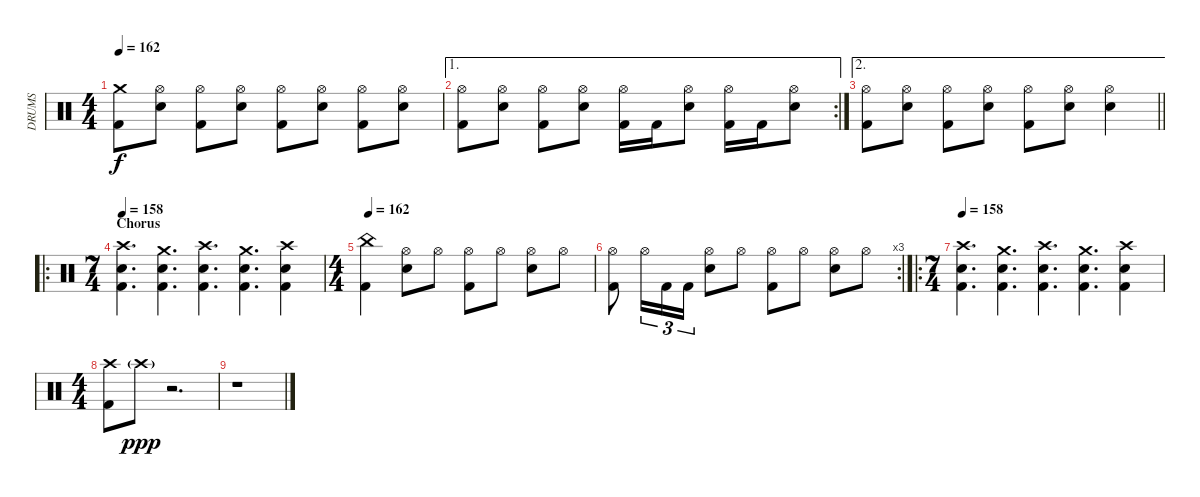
\track ("DRUMS" "DRUMS") {instrument percussion}
\staff {score}
\articulation defaults
\ts (4 4)
\tempo 162
\clef neutral
\ks c
("Crash medium (hit)" "Kick (hit) 2").8{dy f} ("Hi-Hat (open)" "Snare (hit) 2").8 ("Hi-Hat (open)" "Kick (hit) 2").8 ("Hi-Hat (open)" "Snare (hit) 2").8 ("Hi-Hat (open)" "Kick (hit) 2").8 ("Hi-Hat (open)" "Snare (hit) 2").8 ("Hi-Hat (open)" "Kick (hit) 2").8 ("Hi-Hat (open)" "Snare (hit) 2").8 |
\ae 1
\rc 2
("Hi-Hat (open)" "Kick (hit) 2").8 ("Hi-Hat (open)" "Snare (hit) 2").8 ("Hi-Hat (open)" "Kick (hit) 2").8 ("Hi-Hat (open)" "Snare (hit) 2").8 ("Hi-Hat (open)" "Kick (hit) 2").16 "Kick (hit) 2".16 ("Hi-Hat (open)" "Snare (hit) 2").8 ("Hi-Hat (open)" "Kick (hit) 2").16 "Kick (hit) 2".16 ("Hi-Hat (open)" "Snare (hit) 2").8 |
\ae 2
\barLineRight lightlight
("Hi-Hat (open)" "Kick (hit) 2").8 ("Hi-Hat (open)" "Snare (hit) 2").8 ("Hi-Hat (open)" "Kick (hit) 2").8 ("Hi-Hat (open)" "Snare (hit) 2").8 ("Hi-Hat (open)" "Kick (hit) 2").8 ("Hi-Hat (open)" "Snare (hit) 2").8 ("Hi-Hat (open)" "Snare (hit) 2").4 |
\ro
\ts (7 4)
\section ("" "Chorus")
\tempo 158
("Crash high (hit)" "Snare (hit) 2" "Kick (hit) 2").4{d} ("Crash medium (hit)" "Snare (hit) 2" "Kick (hit) 2").4{d} ("Crash high (hit)" "Snare (hit) 2" "Kick (hit) 2").4{d} ("Crash medium (hit)" "Snare (hit) 2" "Kick (hit) 2").4{d} ("Crash high (hit)" "Snare (hit) 2" "Kick (hit) 2").4 |
\ts (4 4)
\tempo 162
("China (hit)" "Kick (hit) 2").4 ("Hi-Hat (open)" "Snare (hit) 2").8 "Hi-Hat (open)".8 ("Hi-Hat (open)" "Kick (hit) 2").8 "Hi-Hat (open)".8 ("Hi-Hat (open)" "Snare (hit) 2").8 "Hi-Hat (open)".8 |
\rc 3
("Hi-Hat (open)" "Kick (hit) 2").8 "Hi-Hat (open)".16{tu (3 2)} "Kick (hit) 2".16{tu (3 2)} "Kick (hit) 2".16{tu (3 2)} ("Hi-Hat (open)" "Snare (hit) 2").8 "Hi-Hat (open)".8 ("Hi-Hat (open)" "Kick (hit) 2").8 "Hi-Hat (open)".8 ("Hi-Hat (open)" "Snare (hit) 2").8 "Hi-Hat (open)".8 |
\ro
\ts (7 4)
\tempo 158
("Crash high (hit)" "Snare (hit) 2" "Kick (hit) 2").4{d} ("Crash medium (hit)" "Snare (hit) 2" "Kick (hit) 2").4{d} ("Crash high (hit)" "Snare (hit) 2" "Kick (hit) 2").4{d} ("Crash medium (hit)" "Snare (hit) 2" "Kick (hit) 2").4{d} ("Crash high (hit)" "Snare (hit) 2" "Kick (hit) 2").4 |
\ts (4 4)
("Crash high (hit)" "Kick (hit) 2").8 "Crash high (hit)"{g}.8{dy ppp} r.2{d} |
r.1
